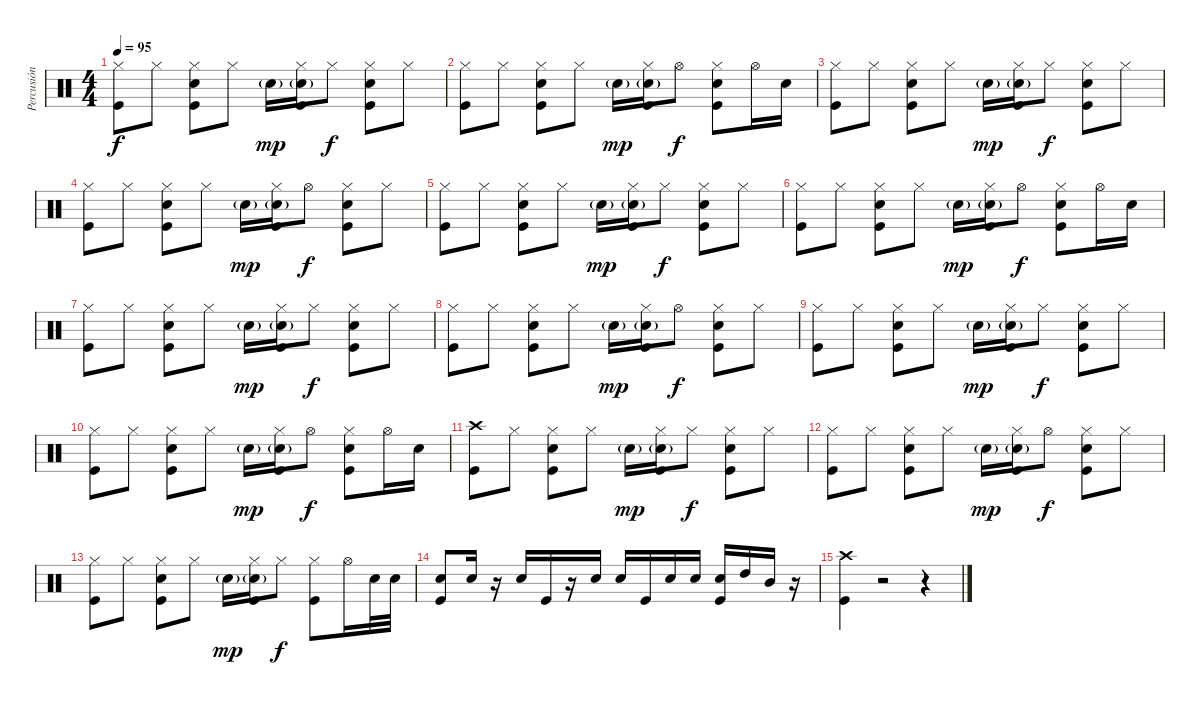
\track ("Percusión" "Percusión") {instrument percussion}
\staff {score}
\articulation defaults
\ts (4 4)
\tempo 95
\clef neutral
\ks c
("Hi-Hat (closed)" "Kick (hit)").8{dy f} "Hi-Hat (closed)".8 ("Hi-Hat (closed)" "Snare (hit) 2" "Kick (hit)").8 "Hi-Hat (closed)".8 "Snare (hit) 2"{g}.16{dy mp} ("Hi-Hat (closed)" "Snare (hit) 2"{g} "Kick (hit)").16 "Hi-Hat (closed)".8{dy f} ("Hi-Hat (closed)" "Snare (hit) 2" "Kick (hit)").8 "Hi-Hat (closed)".8 |
("Hi-Hat (closed)" "Kick (hit)").8 "Hi-Hat (closed)".8 ("Hi-Hat (closed)" "Snare (hit) 2" "Kick (hit)").8 "Hi-Hat (closed)".8 "Snare (hit) 2"{g}.16{dy mp} ("Hi-Hat (closed)" "Snare (hit) 2"{g} "Kick (hit)").16 "Hi-Hat (open)".8{dy f} ("Hi-Hat (closed)" "Snare (hit) 2" "Kick (hit)").8 "Hi-Hat (open)".16 "Snare (hit) 2".16 |
("Hi-Hat (closed)" "Kick (hit)").8 "Hi-Hat (closed)".8 ("Hi-Hat (closed)" "Snare (hit) 2" "Kick (hit)").8 "Hi-Hat (closed)".8 "Snare (hit) 2"{g}.16{dy mp} ("Hi-Hat (closed)" "Snare (hit) 2"{g} "Kick (hit)").16 "Hi-Hat (closed)".8{dy f} ("Hi-Hat (closed)" "Snare (hit) 2" "Kick (hit)").8 "Hi-Hat (closed)".8 |
("Hi-Hat (closed)" "Kick (hit)").8 "Hi-Hat (closed)".8 ("Hi-Hat (closed)" "Snare (hit) 2" "Kick (hit)").8 "Hi-Hat (closed)".8 "Snare (hit) 2"{g}.16{dy mp} ("Hi-Hat (closed)" "Snare (hit) 2"{g} "Kick (hit)").16 "Hi-Hat (open)".8{dy f} ("Hi-Hat (closed)" "Snare (hit) 2" "Kick (hit)").8 "Hi-Hat (closed)".8 |
("Hi-Hat (closed)" "Kick (hit)").8 "Hi-Hat (closed)".8 ("Hi-Hat (closed)" "Snare (hit) 2" "Kick (hit)").8 "Hi-Hat (closed)".8 "Snare (hit) 2"{g}.16{dy mp} ("Hi-Hat (closed)" "Snare (hit) 2"{g} "Kick (hit)").16 "Hi-Hat (closed)".8{dy f} ("Hi-Hat (closed)" "Snare (hit) 2" "Kick (hit)").8 "Hi-Hat (closed)".8 |
("Hi-Hat (closed)" "Kick (hit)").8 "Hi-Hat (closed)".8 ("Hi-Hat (closed)" "Snare (hit) 2" "Kick (hit)").8 "Hi-Hat (closed)".8 "Snare (hit) 2"{g}.16{dy mp} ("Hi-Hat (closed)" "Snare (hit) 2"{g} "Kick (hit)").16 "Hi-Hat (open)".8{dy f} ("Hi-Hat (closed)" "Snare (hit) 2" "Kick (hit)").8 "Hi-Hat (open)".16 "Snare (hit) 2".16 |
("Hi-Hat (closed)" "Kick (hit)").8 "Hi-Hat (closed)".8 ("Hi-Hat (closed)" "Snare (hit) 2" "Kick (hit)").8 "Hi-Hat (closed)".8 "Snare (hit) 2"{g}.16{dy mp} ("Hi-Hat (closed)" "Snare (hit) 2"{g} "Kick (hit)").16 "Hi-Hat (closed)".8{dy f} ("Hi-Hat (closed)" "Snare (hit) 2" "Kick (hit)").8 "Hi-Hat (closed)".8 |
("Hi-Hat (closed)" "Kick (hit)").8 "Hi-Hat (closed)".8 ("Hi-Hat (closed)" "Snare (hit) 2" "Kick (hit)").8 "Hi-Hat (closed)".8 "Snare (hit) 2"{g}.16{dy mp} ("Hi-Hat (closed)" "Snare (hit) 2"{g} "Kick (hit)").16 "Hi-Hat (open)".8{dy f} ("Hi-Hat (closed)" "Snare (hit) 2" "Kick (hit)").8 "Hi-Hat (closed)".8 |
("Hi-Hat (closed)" "Kick (hit)").8 "Hi-Hat (closed)".8 ("Hi-Hat (closed)" "Snare (hit) 2" "Kick (hit)").8 "Hi-Hat (closed)".8 "Snare (hit) 2"{g}.16{dy mp} ("Hi-Hat (closed)" "Snare (hit) 2"{g} "Kick (hit)").16 "Hi-Hat (closed)".8{dy f} ("Hi-Hat (closed)" "Snare (hit) 2" "Kick (hit)").8 "Hi-Hat (closed)".8 |
("Hi-Hat (closed)" "Kick (hit)").8 "Hi-Hat (closed)".8 ("Hi-Hat (closed)" "Snare (hit) 2" "Kick (hit)").8 "Hi-Hat (closed)".8 "Snare (hit) 2"{g}.16{dy mp} ("Hi-Hat (closed)" "Snare (hit) 2"{g} "Kick (hit)").16 "Hi-Hat (open)".8{dy f} ("Hi-Hat (closed)" "Snare (hit) 2" "Kick (hit)").8 "Hi-Hat (open)".16 "Snare (hit) 2".16 |
("Crash high (hit)" "Kick (hit)").8 "Hi-Hat (closed)".8 ("Hi-Hat (closed)" "Snare (hit) 2" "Kick (hit)").8 "Hi-Hat (closed)".8 "Snare (hit) 2"{g}.16{dy mp} ("Hi-Hat (closed)" "Snare (hit) 2"{g} "Kick (hit)").16 "Hi-Hat (closed)".8{dy f} ("Hi-Hat (closed)" "Snare (hit) 2" "Kick (hit)").8 "Hi-Hat (closed)".8 |
("Hi-Hat (closed)" "Kick (hit)").8 "Hi-Hat (closed)".8 ("Hi-Hat (closed)" "Snare (hit) 2" "Kick (hit)").8 "Hi-Hat (closed)".8 "Snare (hit) 2"{g}.16{dy mp} ("Hi-Hat (closed)" "Snare (hit) 2"{g} "Kick (hit)").16 "Hi-Hat (open)".8{dy f} ("Hi-Hat (closed)" "Snare (hit) 2" "Kick (hit)").8 "Hi-Hat (closed)".8 |
("Hi-Hat (closed)" "Kick (hit)").8 "Hi-Hat (closed)".8 ("Hi-Hat (closed)" "Snare (hit) 2" "Kick (hit)").8 "Hi-Hat (closed)".8 "Snare (hit) 2"{g}.16{dy mp} ("Hi-Hat (closed)" "Snare (hit) 2"{g} "Kick (hit)").16 "Hi-Hat (closed)".8{dy f} ("Hi-Hat (closed)" "Kick (hit)").8 "Hi-Hat (open)".16 "Snare (hit) 2".32 "Snare (hit) 2".32 |
("Snare (hit) 2" "Kick (hit)").8 "Snare (hit) 2".16 r.16 "Snare (hit) 2".16 "Kick (hit)".16 r.16 "Snare (hit) 2".16 "Snare (hit) 2".16 "Kick (hit)".16 "Snare (hit) 2".16 "Snare (hit) 2".16 ("Snare (hit) 2" "Kick (hit)").16 "High Tom (hit)".16 "Mid Tom (hit)".16 r.16 |
("Crash high (hit)" "Kick (hit)").4 r.2 r.4
